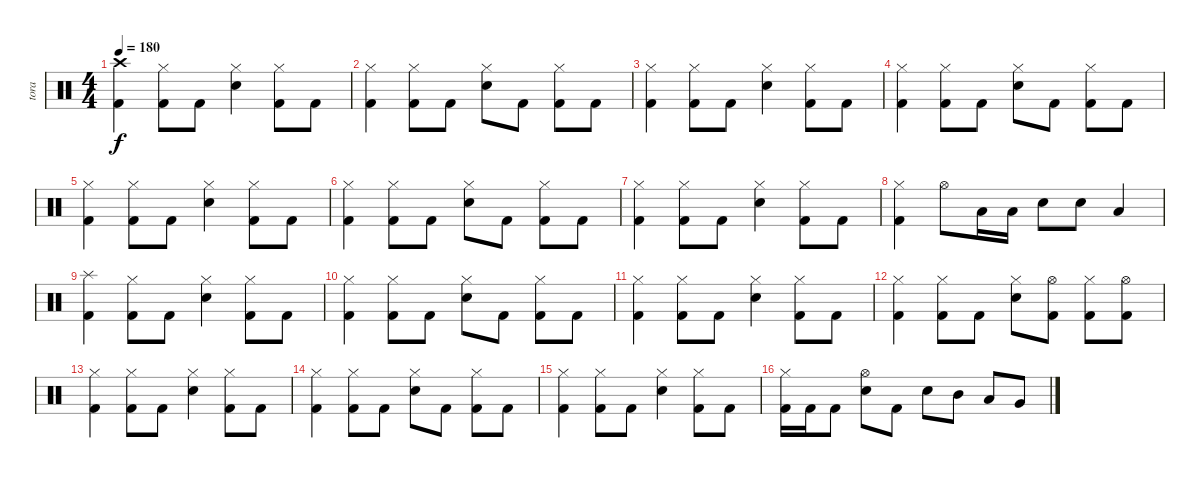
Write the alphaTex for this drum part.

\track ("tora" "tora") {instrument percussion}
\staff {score}
\articulation defaults
\ts (4 4)
\tempo 180
\clef neutral
\ks c
("Crash high (hit)" "Kick (hit) 2").4{dy f} ("Hi-Hat (closed)" "Kick (hit) 2").8 "Kick (hit) 2".8 ("Hi-Hat (closed)" "Snare (hit) 2").4 ("Hi-Hat (closed)" "Kick (hit) 2").8 "Kick (hit) 2".8 |
("Hi-Hat (closed)" "Kick (hit) 2").4 ("Hi-Hat (closed)" "Kick (hit) 2").8 "Kick (hit) 2".8 ("Hi-Hat (closed)" "Snare (hit) 2").8 "Kick (hit) 2".8 ("Hi-Hat (closed)" "Kick (hit) 2").8 "Kick (hit) 2".8 |
("Hi-Hat (closed)" "Kick (hit) 2").4 ("Hi-Hat (closed)" "Kick (hit) 2").8 "Kick (hit) 2".8 ("Hi-Hat (closed)" "Snare (hit) 2").4 ("Hi-Hat (closed)" "Kick (hit) 2").8 "Kick (hit) 2".8 |
("Hi-Hat (closed)" "Kick (hit) 2").4 ("Hi-Hat (closed)" "Kick (hit) 2").8 "Kick (hit) 2".8 ("Hi-Hat (closed)" "Snare (hit) 2").8 "Kick (hit) 2".8 ("Hi-Hat (closed)" "Kick (hit) 2").8 "Kick (hit) 2".8 |
("Hi-Hat (closed)" "Kick (hit) 2").4 ("Hi-Hat (closed)" "Kick (hit) 2").8 "Kick (hit) 2".8 ("Hi-Hat (closed)" "Snare (hit) 2").4 ("Hi-Hat (closed)" "Kick (hit) 2").8 "Kick (hit) 2".8 |
("Hi-Hat (closed)" "Kick (hit) 2").4 ("Hi-Hat (closed)" "Kick (hit) 2").8 "Kick (hit) 2".8 ("Hi-Hat (closed)" "Snare (hit) 2").8 "Kick (hit) 2".8 ("Hi-Hat (closed)" "Kick (hit) 2").8 "Kick (hit) 2".8 |
("Hi-Hat (closed)" "Kick (hit) 2").4 ("Hi-Hat (closed)" "Kick (hit) 2").8 "Kick (hit) 2".8 ("Hi-Hat (closed)" "Snare (hit) 2").4 ("Hi-Hat (closed)" "Kick (hit) 2").8 "Kick (hit) 2".8 |
("Hi-Hat (closed)" "Kick (hit) 2").4 "Hi-Hat (open)".8 "Low Floor Tom (hit)".16 "Low Floor Tom (hit)".16 "Snare (hit) 2".8 "Snare (hit) 2".8 "Low Tom (hit)".4 |
("Splash (hit)" "Kick (hit) 2").4 ("Hi-Hat (closed)" "Kick (hit) 2").8 "Kick (hit) 2".8 ("Hi-Hat (closed)" "Snare (hit) 2").4 ("Hi-Hat (closed)" "Kick (hit) 2").8 "Kick (hit) 2".8 |
("Hi-Hat (closed)" "Kick (hit) 2").4 ("Hi-Hat (closed)" "Kick (hit) 2").8 "Kick (hit) 2".8 ("Hi-Hat (closed)" "Snare (hit) 2").8 "Kick (hit) 2".8 ("Hi-Hat (closed)" "Kick (hit) 2").8 "Kick (hit) 2".8 |
("Hi-Hat (closed)" "Kick (hit) 2").4 ("Hi-Hat (closed)" "Kick (hit) 2").8 "Kick (hit) 2".8 ("Hi-Hat (closed)" "Snare (hit) 2").4 ("Hi-Hat (closed)" "Kick (hit) 2").8 "Kick (hit) 2".8 |
("Hi-Hat (closed)" "Kick (hit) 2").4 ("Hi-Hat (closed)" "Kick (hit) 2").8 "Kick (hit) 2".8 ("Hi-Hat (closed)" "Snare (hit) 2").8 ("Hi-Hat (open)" "Kick (hit) 2").8 ("Hi-Hat (closed)" "Kick (hit) 2").8 ("Hi-Hat (open)" "Kick (hit) 2").8 |
("Hi-Hat (closed)" "Kick (hit) 2").4 ("Hi-Hat (closed)" "Kick (hit) 2").8 "Kick (hit) 2".8 ("Hi-Hat (closed)" "Snare (hit) 2").4 ("Hi-Hat (closed)" "Kick (hit) 2").8 "Kick (hit) 2".8 |
("Hi-Hat (closed)" "Kick (hit) 2").4 ("Hi-Hat (closed)" "Kick (hit) 2").8 "Kick (hit) 2".8 ("Hi-Hat (closed)" "Snare (hit) 2").8 "Kick (hit) 2".8 ("Hi-Hat (closed)" "Kick (hit) 2").8 "Kick (hit) 2".8 |
("Hi-Hat (closed)" "Kick (hit) 2").4 ("Hi-Hat (closed)" "Kick (hit) 2").8 "Kick (hit) 2".8 ("Hi-Hat (closed)" "Snare (hit) 2").4 ("Hi-Hat (closed)" "Kick (hit) 2").8 "Kick (hit) 2".8 |
("Hi-Hat (closed)" "Kick (hit) 2").16 "Kick (hit) 2".16 "Kick (hit) 2".8 ("Hi-Hat (open)" "Snare (hit) 2").8 "Kick (hit) 2".8 "Snare (hit) 2".8 "Mid Tom (hit)".8 "Low Tom (hit)".8 "Very Low Tom (hit)".8
